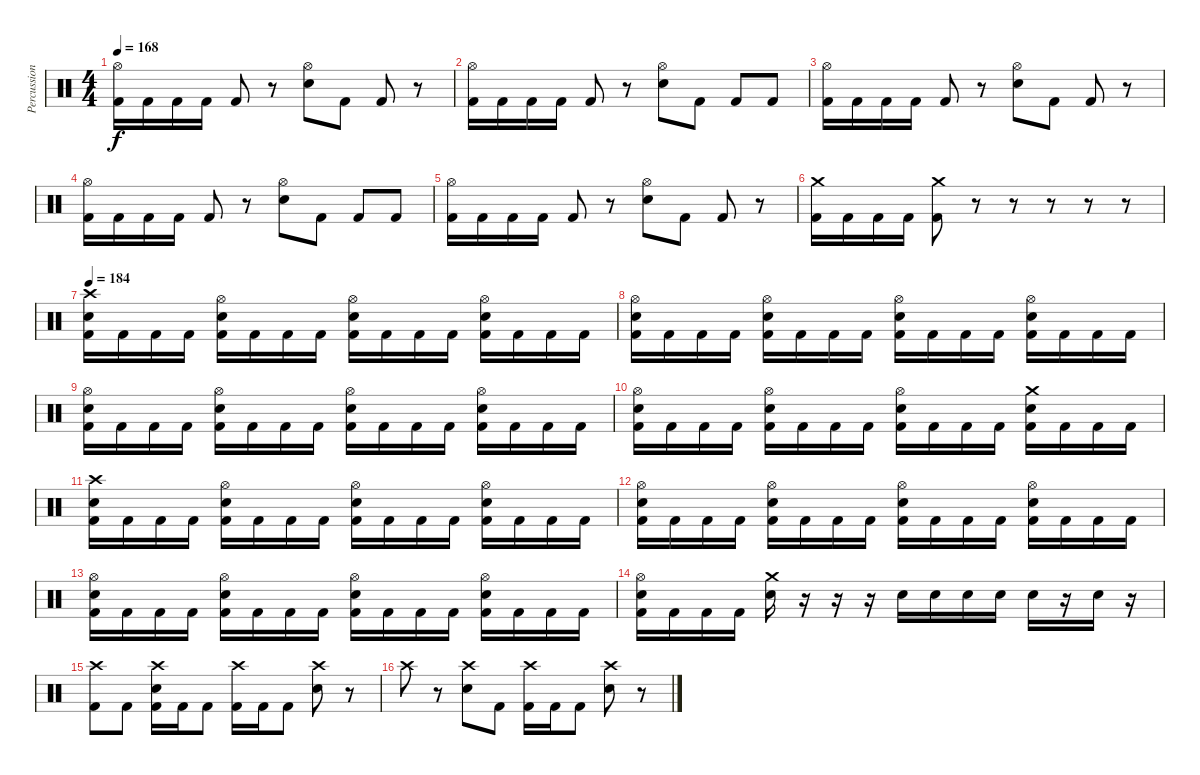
\track ("Percussion" "Percussion") {instrument percussion}
\staff {score}
\articulation defaults
\ts (4 4)
\tempo 168
\clef neutral
\ks c
("Hi-Hat (open)" "Kick (hit) 2").16{dy f} "Kick (hit) 2".16 "Kick (hit) 2".16 "Kick (hit) 2".16 "Kick (hit) 2".8 r.8 ("Hi-Hat (open)" "Snare (hit) 2").8 "Kick (hit) 2".8 "Kick (hit) 2".8 r.8 |
("Hi-Hat (open)" "Kick (hit) 2").16 "Kick (hit) 2".16 "Kick (hit) 2".16 "Kick (hit) 2".16 "Kick (hit) 2".8 r.8 ("Hi-Hat (open)" "Snare (hit) 2").8 "Kick (hit) 2".8 "Kick (hit) 2".8 "Kick (hit) 2".8 |
("Hi-Hat (open)" "Kick (hit) 2").16 "Kick (hit) 2".16 "Kick (hit) 2".16 "Kick (hit) 2".16 "Kick (hit) 2".8 r.8 ("Hi-Hat (open)" "Snare (hit) 2").8 "Kick (hit) 2".8 "Kick (hit) 2".8 r.8 |
("Hi-Hat (open)" "Kick (hit) 2").16 "Kick (hit) 2".16 "Kick (hit) 2".16 "Kick (hit) 2".16 "Kick (hit) 2".8 r.8 ("Hi-Hat (open)" "Snare (hit) 2").8 "Kick (hit) 2".8 "Kick (hit) 2".8 "Kick (hit) 2".8 |
("Hi-Hat (open)" "Kick (hit) 2").16 "Kick (hit) 2".16 "Kick (hit) 2".16 "Kick (hit) 2".16 "Kick (hit) 2".8 r.8 ("Hi-Hat (open)" "Snare (hit) 2").8 "Kick (hit) 2".8 "Kick (hit) 2".8 r.8 |
("Crash medium (hit)" "Kick (hit) 2").16 "Kick (hit) 2".16 "Kick (hit) 2".16 "Kick (hit) 2".16 ("Crash medium (hit)" "Kick (hit) 2").8 r.8{volume 0} r.8 r.8 r.8 r.8 |
\tempo 184
("Crash high (hit)" "Snare (hit) 2" "Kick (hit) 2").16{volume 16} "Kick (hit) 2".16 "Kick (hit) 2".16 "Kick (hit) 2".16 ("Hi-Hat (open)" "Snare (hit) 2" "Kick (hit) 2").16 "Kick (hit) 2".16 "Kick (hit) 2".16 "Kick (hit) 2".16 ("Hi-Hat (open)" "Snare (hit) 2" "Kick (hit) 2").16 "Kick (hit) 2".16 "Kick (hit) 2".16 "Kick (hit) 2".16 ("Hi-Hat (open)" "Snare (hit) 2" "Kick (hit) 2").16 "Kick (hit) 2".16 "Kick (hit) 2".16 "Kick (hit) 2".16 |
("Hi-Hat (open)" "Snare (hit) 2" "Kick (hit) 2").16 "Kick (hit) 2".16 "Kick (hit) 2".16 "Kick (hit) 2".16 ("Hi-Hat (open)" "Snare (hit) 2" "Kick (hit) 2").16 "Kick (hit) 2".16 "Kick (hit) 2".16 "Kick (hit) 2".16 ("Hi-Hat (open)" "Snare (hit) 2" "Kick (hit) 2").16 "Kick (hit) 2".16 "Kick (hit) 2".16 "Kick (hit) 2".16 ("Hi-Hat (open)" "Snare (hit) 2" "Kick (hit) 2").16 "Kick (hit) 2".16 "Kick (hit) 2".16 "Kick (hit) 2".16 |
("Hi-Hat (open)" "Snare (hit) 2" "Kick (hit) 2").16 "Kick (hit) 2".16 "Kick (hit) 2".16 "Kick (hit) 2".16 ("Hi-Hat (open)" "Snare (hit) 2" "Kick (hit) 2").16 "Kick (hit) 2".16 "Kick (hit) 2".16 "Kick (hit) 2".16 ("Hi-Hat (open)" "Snare (hit) 2" "Kick (hit) 2").16 "Kick (hit) 2".16 "Kick (hit) 2".16 "Kick (hit) 2".16 ("Hi-Hat (open)" "Snare (hit) 2" "Kick (hit) 2").16 "Kick (hit) 2".16 "Kick (hit) 2".16 "Kick (hit) 2".16 |
("Hi-Hat (open)" "Snare (hit) 2" "Kick (hit) 2").16 "Kick (hit) 2".16 "Kick (hit) 2".16 "Kick (hit) 2".16 ("Hi-Hat (open)" "Snare (hit) 2" "Kick (hit) 2").16 "Kick (hit) 2".16 "Kick (hit) 2".16 "Kick (hit) 2".16 ("Hi-Hat (open)" "Snare (hit) 2" "Kick (hit) 2").16 "Kick (hit) 2".16 "Kick (hit) 2".16 "Kick (hit) 2".16 ("Crash medium (hit)" "Snare (hit) 2" "Kick (hit) 2").16 "Kick (hit) 2".16 "Kick (hit) 2".16 "Kick (hit) 2".16 |
("Crash high (hit)" "Snare (hit) 2" "Kick (hit) 2").16 "Kick (hit) 2".16 "Kick (hit) 2".16 "Kick (hit) 2".16 ("Hi-Hat (open)" "Snare (hit) 2" "Kick (hit) 2").16 "Kick (hit) 2".16 "Kick (hit) 2".16 "Kick (hit) 2".16 ("Hi-Hat (open)" "Snare (hit) 2" "Kick (hit) 2").16 "Kick (hit) 2".16 "Kick (hit) 2".16 "Kick (hit) 2".16 ("Hi-Hat (open)" "Snare (hit) 2" "Kick (hit) 2").16 "Kick (hit) 2".16 "Kick (hit) 2".16 "Kick (hit) 2".16 |
("Hi-Hat (open)" "Snare (hit) 2" "Kick (hit) 2").16 "Kick (hit) 2".16 "Kick (hit) 2".16 "Kick (hit) 2".16 ("Hi-Hat (open)" "Snare (hit) 2" "Kick (hit) 2").16 "Kick (hit) 2".16 "Kick (hit) 2".16 "Kick (hit) 2".16 ("Hi-Hat (open)" "Snare (hit) 2" "Kick (hit) 2").16 "Kick (hit) 2".16 "Kick (hit) 2".16 "Kick (hit) 2".16 ("Hi-Hat (open)" "Snare (hit) 2" "Kick (hit) 2").16 "Kick (hit) 2".16 "Kick (hit) 2".16 "Kick (hit) 2".16 |
("Hi-Hat (open)" "Snare (hit) 2" "Kick (hit) 2").16 "Kick (hit) 2".16 "Kick (hit) 2".16 "Kick (hit) 2".16 ("Hi-Hat (open)" "Snare (hit) 2" "Kick (hit) 2").16 "Kick (hit) 2".16 "Kick (hit) 2".16 "Kick (hit) 2".16 ("Hi-Hat (open)" "Snare (hit) 2" "Kick (hit) 2").16 "Kick (hit) 2".16 "Kick (hit) 2".16 "Kick (hit) 2".16 ("Hi-Hat (open)" "Snare (hit) 2" "Kick (hit) 2").16 "Kick (hit) 2".16 "Kick (hit) 2".16 "Kick (hit) 2".16 |
("Hi-Hat (open)" "Snare (hit) 2" "Kick (hit) 2").16 "Kick (hit) 2".16 "Kick (hit) 2".16 "Kick (hit) 2".16 ("Crash medium (hit)" "Snare (hit) 2").16 r.16 r.16 r.16 "Snare (hit) 2".16 "Snare (hit) 2".16 "Snare (hit) 2".16 "Snare (hit) 2".16 "Snare (hit) 2".16 r.16 "Snare (hit) 2".16 r.16 |
("Crash high (hit)" "Kick (hit) 2").8 "Kick (hit) 2".8 ("Crash high (hit)" "Snare (hit) 2" "Kick (hit) 2").16 "Kick (hit) 2".16 "Kick (hit) 2".8 ("Crash high (hit)" "Kick (hit) 2").16 "Kick (hit) 2".16 "Kick (hit) 2".8 ("Crash high (hit)" "Snare (hit) 2").8 r.8 |
"Crash high (hit)".8 r.8 ("Crash high (hit)" "Snare (hit) 2").8 "Kick (hit) 2".8 ("Crash high (hit)" "Kick (hit) 2").16 "Kick (hit) 2".16 "Kick (hit) 2".8 ("Crash high (hit)" "Snare (hit) 2").8 r.8
